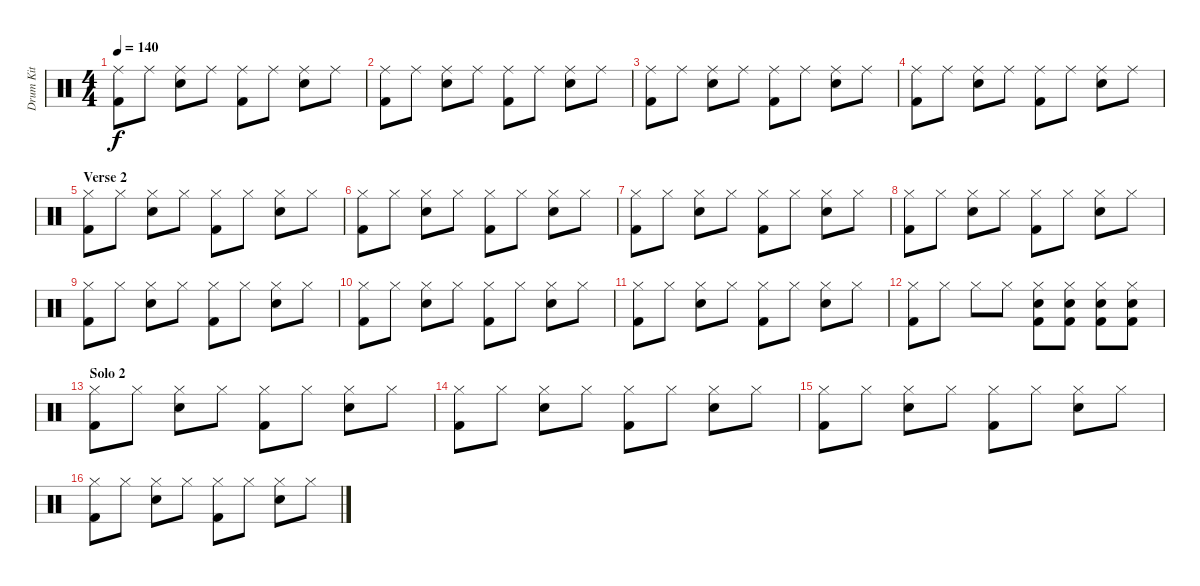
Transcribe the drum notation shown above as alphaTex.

\track ("Drum Kit" "Drum Kit") {instrument percussion}
\staff {score}
\articulation defaults
\ts (4 4)
\tempo 140
\clef neutral
\ks c
("Ride (middle)" "Kick (hit) 2").8{dy f} "Ride (middle)".8 ("Ride (middle)" "Snare (hit) 2").8 "Ride (middle)".8 ("Ride (middle)" "Kick (hit) 2").8 "Ride (middle)".8 ("Ride (middle)" "Snare (hit) 2").8 "Ride (middle)".8 |
("Ride (middle)" "Kick (hit) 2").8 "Ride (middle)".8 ("Ride (middle)" "Snare (hit) 2").8 "Ride (middle)".8 ("Ride (middle)" "Kick (hit) 2").8 "Ride (middle)".8 ("Ride (middle)" "Snare (hit) 2").8 "Ride (middle)".8 |
("Ride (middle)" "Kick (hit) 2").8 "Ride (middle)".8 ("Ride (middle)" "Snare (hit) 2").8 "Ride (middle)".8 ("Ride (middle)" "Kick (hit) 2").8 "Ride (middle)".8 ("Ride (middle)" "Snare (hit) 2").8 "Ride (middle)".8 |
("Ride (middle)" "Kick (hit) 2").8 "Ride (middle)".8 ("Ride (middle)" "Snare (hit) 2").8 "Ride (middle)".8 ("Ride (middle)" "Kick (hit) 2").8 "Ride (middle)".8 ("Ride (middle)" "Snare (hit) 2").8 "Ride (middle)".8 |
\section ("" "Verse 2")
("Hi-Hat (closed)" "Kick (hit) 2").8 "Hi-Hat (closed)".8 ("Hi-Hat (closed)" "Snare (hit) 2").8 "Hi-Hat (closed)".8 ("Hi-Hat (closed)" "Kick (hit) 2").8 "Hi-Hat (closed)".8 ("Hi-Hat (closed)" "Snare (hit) 2").8 "Hi-Hat (closed)".8 |
("Hi-Hat (closed)" "Kick (hit) 2").8 "Hi-Hat (closed)".8 ("Hi-Hat (closed)" "Snare (hit) 2").8 "Hi-Hat (closed)".8 ("Hi-Hat (closed)" "Kick (hit) 2").8 "Hi-Hat (closed)".8 ("Hi-Hat (closed)" "Snare (hit) 2").8 "Hi-Hat (closed)".8 |
("Hi-Hat (closed)" "Kick (hit) 2").8 "Hi-Hat (closed)".8 ("Hi-Hat (closed)" "Snare (hit) 2").8 "Hi-Hat (closed)".8 ("Hi-Hat (closed)" "Kick (hit) 2").8 "Hi-Hat (closed)".8 ("Hi-Hat (closed)" "Snare (hit) 2").8 "Hi-Hat (closed)".8 |
("Hi-Hat (closed)" "Kick (hit) 2").8 "Hi-Hat (closed)".8 ("Hi-Hat (closed)" "Snare (hit) 2").8 "Hi-Hat (closed)".8 ("Hi-Hat (closed)" "Kick (hit) 2").8 "Hi-Hat (closed)".8 ("Hi-Hat (closed)" "Snare (hit) 2").8 "Hi-Hat (closed)".8 |
("Hi-Hat (closed)" "Kick (hit) 2").8 "Hi-Hat (closed)".8 ("Hi-Hat (closed)" "Snare (hit) 2").8 "Hi-Hat (closed)".8 ("Hi-Hat (closed)" "Kick (hit) 2").8 "Hi-Hat (closed)".8 ("Hi-Hat (closed)" "Snare (hit) 2").8 "Hi-Hat (closed)".8 |
("Hi-Hat (closed)" "Kick (hit) 2").8 "Hi-Hat (closed)".8 ("Hi-Hat (closed)" "Snare (hit) 2").8 "Hi-Hat (closed)".8 ("Hi-Hat (closed)" "Kick (hit) 2").8 "Hi-Hat (closed)".8 ("Hi-Hat (closed)" "Snare (hit) 2").8 "Hi-Hat (closed)".8 |
("Hi-Hat (closed)" "Kick (hit) 2").8 "Hi-Hat (closed)".8 ("Hi-Hat (closed)" "Snare (hit) 2").8 "Hi-Hat (closed)".8 ("Hi-Hat (closed)" "Kick (hit) 2").8 "Hi-Hat (closed)".8 ("Hi-Hat (closed)" "Snare (hit) 2").8 "Hi-Hat (closed)".8 |
("Hi-Hat (closed)" "Kick (hit) 2").8 "Hi-Hat (closed)".8 "Hi-Hat (closed)".8 "Hi-Hat (closed)".8 ("Hi-Hat (closed)" "Snare (hit) 2" "Kick (hit) 2").8 ("Hi-Hat (closed)" "Snare (hit) 2" "Kick (hit) 2").8 ("Hi-Hat (closed)" "Snare (hit) 2" "Kick (hit) 2").8 ("Hi-Hat (closed)" "Snare (hit) 2" "Kick (hit) 2").8 |
\section ("" "Solo 2")
("Hi-Hat (closed)" "Kick (hit) 2").8 "Hi-Hat (closed)".8 ("Hi-Hat (closed)" "Snare (hit) 2").8 "Hi-Hat (closed)".8 ("Hi-Hat (closed)" "Kick (hit) 2").8 "Hi-Hat (closed)".8 ("Hi-Hat (closed)" "Snare (hit) 2").8 "Hi-Hat (closed)".8 |
("Hi-Hat (closed)" "Kick (hit) 2").8 "Hi-Hat (closed)".8 ("Hi-Hat (closed)" "Snare (hit) 2").8 "Hi-Hat (closed)".8 ("Hi-Hat (closed)" "Kick (hit) 2").8 "Hi-Hat (closed)".8 ("Hi-Hat (closed)" "Snare (hit) 2").8 "Hi-Hat (closed)".8 |
("Hi-Hat (closed)" "Kick (hit) 2").8 "Hi-Hat (closed)".8 ("Hi-Hat (closed)" "Snare (hit) 2").8 "Hi-Hat (closed)".8 ("Hi-Hat (closed)" "Kick (hit) 2").8 "Hi-Hat (closed)".8 ("Hi-Hat (closed)" "Snare (hit) 2").8 "Hi-Hat (closed)".8 |
("Hi-Hat (closed)" "Kick (hit) 2").8 "Hi-Hat (closed)".8 ("Hi-Hat (closed)" "Snare (hit) 2").8 "Hi-Hat (closed)".8 ("Hi-Hat (closed)" "Kick (hit) 2").8 "Hi-Hat (closed)".8 ("Hi-Hat (closed)" "Snare (hit) 2").8 "Hi-Hat (closed)".8
